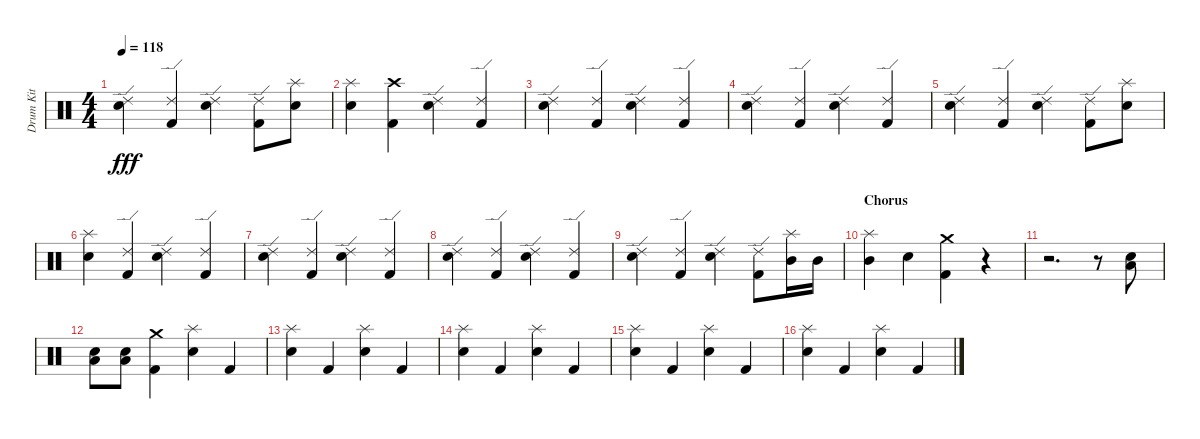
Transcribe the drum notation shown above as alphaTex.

\track ("Drum Kit" "Drum Kit") {instrument percussion}
\staff {score}
\articulation defaults
\ts (4 4)
\tempo 118
\clef neutral
\ks c
("Ride (edge) 2" "Electric Snare (hit)").4{dy fff} ("Ride (edge) 2" "Kick (hit) 2").4 ("Ride (edge) 2" "Electric Snare (hit)").4 ("Ride (edge) 2" "Kick (hit) 2").8 ("Splash (hit)" "Electric Snare (hit)").8 |
("Electric Snare (hit)" "Splash (hit)").4 ("Kick (hit) 2" "Crash high (hit)").4 ("Electric Snare (hit)" "Ride (edge) 2").4 ("Ride (edge) 2" "Kick (hit) 2").4 |
("Ride (edge) 2" "Electric Snare (hit)").4 ("Kick (hit) 2" "Ride (edge) 2").4 ("Electric Snare (hit)" "Ride (edge) 2").4 ("Ride (edge) 2" "Kick (hit) 2").4 |
("Electric Snare (hit)" "Ride (edge) 2").4 ("Kick (hit) 2" "Ride (edge) 2").4 ("Electric Snare (hit)" "Ride (edge) 2").4 ("Ride (edge) 2" "Kick (hit) 2").4 |
("Electric Snare (hit)" "Ride (edge) 2").4 ("Kick (hit) 2" "Ride (edge) 2").4 ("Electric Snare (hit)" "Ride (edge) 2").4 ("Ride (edge) 2" "Kick (hit) 2").8 ("Splash (hit)" "Electric Snare (hit)").8 |
("Splash (hit)" "Electric Snare (hit)").4 ("Kick (hit) 2" "Ride (edge) 2").4 ("Electric Snare (hit)" "Ride (edge) 2").4 ("Ride (edge) 2" "Kick (hit) 2").4 |
("Electric Snare (hit)" "Ride (edge) 2").4 ("Kick (hit) 2" "Ride (edge) 2").4 ("Electric Snare (hit)" "Ride (edge) 2").4 ("Ride (edge) 2" "Kick (hit) 2").4 |
("Electric Snare (hit)" "Ride (edge) 2").4 ("Ride (edge) 2" "Kick (hit) 2").4 ("Ride (edge) 2" "Electric Snare (hit)").4 ("Kick (hit) 2" "Ride (edge) 2").4 |
("Electric Snare (hit)" "Ride (edge) 2").4 ("Kick (hit) 2" "Ride (edge) 2").4 ("Electric Snare (hit)" "Ride (edge) 2").4 ("Ride (edge) 2" "Kick (hit) 2").8 ("Mid Tom (hit)" "Splash (hit)").16 "Mid Tom (hit)".16 |
\section ("" "Chorus")
("Mid Tom (hit)" "Splash (hit)").4 "Electric Snare (hit)".4 ("Crash medium (hit)" "Kick (hit) 2").4 r.4 |
r.2{d} r.8 ("Low Floor Tom (hit)" "Electric Snare (hit)").8 |
("Low Floor Tom (hit)" "Electric Snare (hit)").8 ("Low Floor Tom (hit)" "Electric Snare (hit)").8 ("Kick (hit) 2" "Crash medium (hit)").4 ("Splash (hit)" "Electric Snare (hit)").4 "Kick (hit) 2".4 |
("Splash (hit)" "Electric Snare (hit)").4 "Kick (hit) 2".4 ("Splash (hit)" "Electric Snare (hit)").4 "Kick (hit) 2".4 |
("Splash (hit)" "Electric Snare (hit)").4 "Kick (hit) 2".4 ("Splash (hit)" "Electric Snare (hit)").4 "Kick (hit) 2".4 |
("Splash (hit)" "Electric Snare (hit)").4 "Kick (hit) 2".4 ("Splash (hit)" "Electric Snare (hit)").4 "Kick (hit) 2".4 |
("Electric Snare (hit)" "Splash (hit)").4 "Kick (hit) 2".4 ("Electric Snare (hit)" "Splash (hit)").4 "Kick (hit) 2".4
